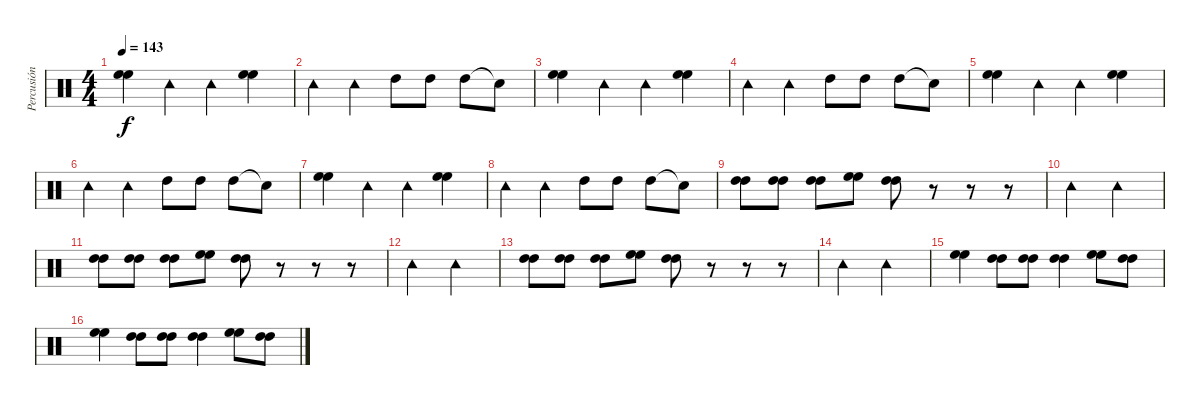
\track ("Percusión" "Percusión") {instrument percussion}
\staff {score}
\articulation defaults
\ts (4 4)
\tempo 143
\clef neutral
\ks c
("High Floor Tom (hit)" "High Floor Tom (hit)").4{dy f} "Tambourine (hit)".4 "Tambourine (hit)".4 ("High Floor Tom (hit)" "High Floor Tom (hit)").4 |
"Tambourine (hit)".4 "Tambourine (hit)".4 "High Tom (hit)".8 "High Tom (hit)".8 "High Tom (hit)".8 "Snare (hit)"{t}.8 |
("High Floor Tom (hit)" "High Floor Tom (hit)").4 "Tambourine (hit)".4 "Tambourine (hit)".4 ("High Floor Tom (hit)" "High Floor Tom (hit)").4 |
"Tambourine (hit)".4 "Tambourine (hit)".4 "High Tom (hit)".8 "High Tom (hit)".8 "High Tom (hit)".8 "Snare (hit)"{t}.8 |
("High Floor Tom (hit)" "High Floor Tom (hit)").4 "Tambourine (hit)".4 "Tambourine (hit)".4 ("High Floor Tom (hit)" "High Floor Tom (hit)").4 |
"Tambourine (hit)".4 "Tambourine (hit)".4 "High Tom (hit)".8 "High Tom (hit)".8 "High Tom (hit)".8 "Snare (hit)"{t}.8 |
("High Floor Tom (hit)" "High Floor Tom (hit)").4 "Tambourine (hit)".4 "Tambourine (hit)".4 ("High Floor Tom (hit)" "High Floor Tom (hit)").4 |
"Tambourine (hit)".4 "Tambourine (hit)".4 "High Tom (hit)".8 "High Tom (hit)".8 "High Tom (hit)".8 "Snare (hit)"{t}.8 |
("High Tom (hit)" "High Tom (hit)").8 ("High Tom (hit)" "High Tom (hit)").8 ("High Tom (hit)" "High Tom (hit)").8 ("High Floor Tom (hit)" "High Floor Tom (hit)").8 ("High Tom (hit)" "High Tom (hit)").8 r.8 r.8 r.8 |
"Tambourine (hit)".2 "Tambourine (hit)".2 |
("High Tom (hit)" "High Tom (hit)").8 ("High Tom (hit)" "High Tom (hit)").8 ("High Tom (hit)" "High Tom (hit)").8 ("High Floor Tom (hit)" "High Floor Tom (hit)").8 ("High Tom (hit)" "High Tom (hit)").8 r.8 r.8 r.8 |
"Tambourine (hit)".2 "Tambourine (hit)".2 |
("High Tom (hit)" "High Tom (hit)").8 ("High Tom (hit)" "High Tom (hit)").8 ("High Tom (hit)" "High Tom (hit)").8 ("High Floor Tom (hit)" "High Floor Tom (hit)").8 ("High Tom (hit)" "High Tom (hit)").8 r.8 r.8 r.8 |
"Tambourine (hit)".2 "Tambourine (hit)".2 |
("High Floor Tom (hit)" "High Floor Tom (hit)").4 ("High Tom (hit)" "High Tom (hit)").8 ("High Tom (hit)" "High Tom (hit)").8 ("High Tom (hit)" "High Tom (hit)").4 ("High Floor Tom (hit)" "High Floor Tom (hit)").8 ("High Tom (hit)" "High Tom (hit)").8 |
("High Floor Tom (hit)" "High Floor Tom (hit)").4 ("High Tom (hit)" "High Tom (hit)").8 ("High Tom (hit)" "High Tom (hit)").8 ("High Tom (hit)" "High Tom (hit)").4 ("High Floor Tom (hit)" "High Floor Tom (hit)").8 ("High Tom (hit)" "High Tom (hit)").8
